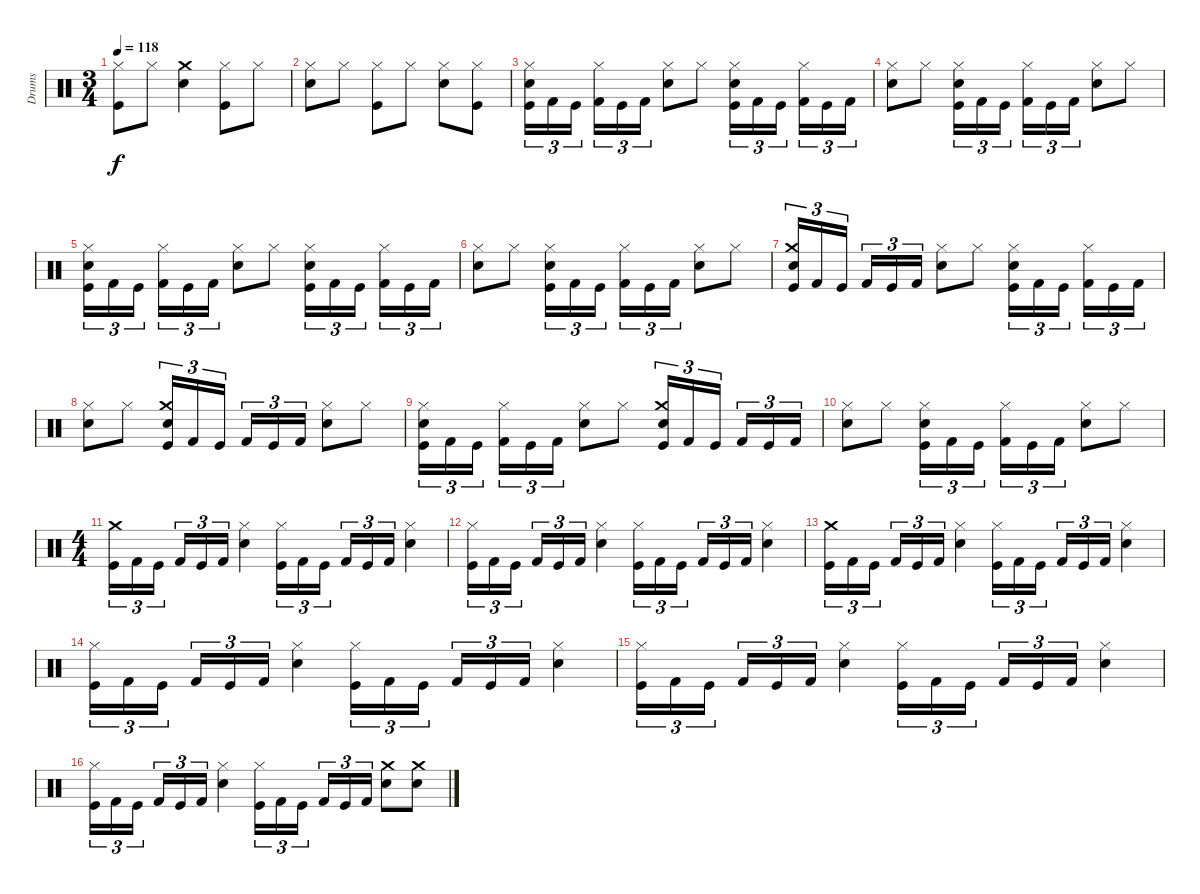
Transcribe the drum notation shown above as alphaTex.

\track ("Drums" "Drums") {instrument percussion}
\staff {score}
\articulation defaults
\ts (3 4)
\tempo 118
\clef neutral
\ks c
("Hi-Hat (closed)" "Kick (hit)").8{dy f} "Hi-Hat (closed)".8 ("Crash medium (hit)" "Snare (hit) 2").4 ("Hi-Hat (closed)" "Kick (hit)").8 "Hi-Hat (closed)".8 |
("Hi-Hat (closed)" "Snare (hit) 2").8 "Hi-Hat (closed)".8 ("Hi-Hat (closed)" "Kick (hit)").8 "Hi-Hat (closed)".8 ("Hi-Hat (closed)" "Snare (hit) 2").8 ("Kick (hit)" "Hi-Hat (closed)").8 |
("Hi-Hat (closed)" "Snare (hit) 2" "Kick (hit)").16{tu (3 2)} "Kick (hit) 2".16{tu (3 2)} "Kick (hit)".16{tu (3 2)} ("Hi-Hat (closed)" "Kick (hit) 2").16{tu (3 2)} "Kick (hit)".16{tu (3 2)} "Kick (hit) 2".16{tu (3 2)} ("Snare (hit) 2" "Hi-Hat (closed)").8 "Hi-Hat (closed)".8 ("Hi-Hat (closed)" "Snare (hit) 2" "Kick (hit)").16{tu (3 2)} "Kick (hit) 2".16{tu (3 2)} "Kick (hit)".16{tu (3 2)} ("Hi-Hat (closed)" "Kick (hit) 2").16{tu (3 2)} "Kick (hit)".16{tu (3 2)} "Kick (hit) 2".16{tu (3 2)} |
("Hi-Hat (closed)" "Snare (hit) 2").8 "Hi-Hat (closed)".8 ("Hi-Hat (closed)" "Snare (hit) 2" "Kick (hit)").16{tu (3 2)} "Kick (hit) 2".16{tu (3 2)} "Kick (hit)".16{tu (3 2)} ("Hi-Hat (closed)" "Kick (hit) 2").16{tu (3 2)} "Kick (hit)".16{tu (3 2)} "Kick (hit) 2".16{tu (3 2)} ("Snare (hit) 2" "Hi-Hat (closed)").8 "Hi-Hat (closed)".8 |
("Hi-Hat (closed)" "Snare (hit) 2" "Kick (hit)").16{tu (3 2)} "Kick (hit) 2".16{tu (3 2)} "Kick (hit)".16{tu (3 2)} ("Hi-Hat (closed)" "Kick (hit) 2").16{tu (3 2)} "Kick (hit)".16{tu (3 2)} "Kick (hit) 2".16{tu (3 2)} ("Snare (hit) 2" "Hi-Hat (closed)").8 "Hi-Hat (closed)".8 ("Hi-Hat (closed)" "Snare (hit) 2" "Kick (hit)").16{tu (3 2)} "Kick (hit) 2".16{tu (3 2)} "Kick (hit)".16{tu (3 2)} ("Hi-Hat (closed)" "Kick (hit) 2").16{tu (3 2)} "Kick (hit)".16{tu (3 2)} "Kick (hit) 2".16{tu (3 2)} |
("Hi-Hat (closed)" "Snare (hit) 2").8 "Hi-Hat (closed)".8 ("Hi-Hat (closed)" "Snare (hit) 2" "Kick (hit)").16{tu (3 2)} "Kick (hit) 2".16{tu (3 2)} "Kick (hit)".16{tu (3 2)} ("Hi-Hat (closed)" "Kick (hit) 2").16{tu (3 2)} "Kick (hit)".16{tu (3 2)} "Kick (hit) 2".16{tu (3 2)} ("Snare (hit) 2" "Hi-Hat (closed)").8 "Hi-Hat (closed)".8 |
("Crash medium (hit)" "Snare (hit) 2" "Kick (hit)").16{tu (3 2)} "Kick (hit) 2".16{tu (3 2)} "Kick (hit)".16{tu (3 2)} "Kick (hit) 2".16{tu (3 2)} "Kick (hit)".16{tu (3 2)} "Kick (hit) 2".16{tu (3 2)} ("Snare (hit) 2" "Hi-Hat (closed)").8 "Hi-Hat (closed)".8 ("Hi-Hat (closed)" "Snare (hit) 2" "Kick (hit)").16{tu (3 2)} "Kick (hit) 2".16{tu (3 2)} "Kick (hit)".16{tu (3 2)} ("Hi-Hat (closed)" "Kick (hit) 2").16{tu (3 2)} "Kick (hit)".16{tu (3 2)} "Kick (hit) 2".16{tu (3 2)} |
("Hi-Hat (closed)" "Snare (hit) 2").8 "Hi-Hat (closed)".8 ("Crash medium (hit)" "Snare (hit) 2" "Kick (hit)").16{tu (3 2)} "Kick (hit) 2".16{tu (3 2)} "Kick (hit)".16{tu (3 2)} "Kick (hit) 2".16{tu (3 2)} "Kick (hit)".16{tu (3 2)} "Kick (hit) 2".16{tu (3 2)} ("Snare (hit) 2" "Hi-Hat (closed)").8 "Hi-Hat (closed)".8 |
("Hi-Hat (closed)" "Snare (hit) 2" "Kick (hit)").16{tu (3 2)} "Kick (hit) 2".16{tu (3 2)} "Kick (hit)".16{tu (3 2)} ("Hi-Hat (closed)" "Kick (hit) 2").16{tu (3 2)} "Kick (hit)".16{tu (3 2)} "Kick (hit) 2".16{tu (3 2)} ("Snare (hit) 2" "Hi-Hat (closed)").8 "Hi-Hat (closed)".8 ("Crash medium (hit)" "Snare (hit) 2" "Kick (hit)").16{tu (3 2)} "Kick (hit) 2".16{tu (3 2)} "Kick (hit)".16{tu (3 2)} "Kick (hit) 2".16{tu (3 2)} "Kick (hit)".16{tu (3 2)} "Kick (hit) 2".16{tu (3 2)} |
("Hi-Hat (closed)" "Snare (hit) 2").8 "Hi-Hat (closed)".8 ("Hi-Hat (closed)" "Snare (hit) 2" "Kick (hit)").16{tu (3 2)} "Kick (hit) 2".16{tu (3 2)} "Kick (hit)".16{tu (3 2)} ("Hi-Hat (closed)" "Kick (hit) 2").16{tu (3 2)} "Kick (hit)".16{tu (3 2)} "Kick (hit) 2".16{tu (3 2)} ("Snare (hit) 2" "Hi-Hat (closed)").8 "Hi-Hat (closed)".8 |
\ts (4 4)
("Crash medium (hit)" "Kick (hit)").16{tu (3 2)} "Kick (hit) 2".16{tu (3 2)} "Kick (hit)".16{tu (3 2)} "Kick (hit) 2".16{tu (3 2)} "Kick (hit)".16{tu (3 2)} "Kick (hit) 2".16{tu (3 2)} ("Snare (hit) 2" "Hi-Hat (closed)").4 ("Hi-Hat (closed)" "Kick (hit)").16{tu (3 2)} "Kick (hit) 2".16{tu (3 2)} "Kick (hit)".16{tu (3 2)} "Kick (hit) 2".16{tu (3 2)} "Kick (hit)".16{tu (3 2)} "Kick (hit) 2".16{tu (3 2)} ("Snare (hit) 2" "Hi-Hat (closed)").4 |
("Hi-Hat (closed)" "Kick (hit)").16{tu (3 2)} "Kick (hit) 2".16{tu (3 2)} "Kick (hit)".16{tu (3 2)} "Kick (hit) 2".16{tu (3 2)} "Kick (hit)".16{tu (3 2)} "Kick (hit) 2".16{tu (3 2)} ("Snare (hit) 2" "Hi-Hat (closed)").4 ("Hi-Hat (closed)" "Kick (hit)").16{tu (3 2)} "Kick (hit) 2".16{tu (3 2)} "Kick (hit)".16{tu (3 2)} "Kick (hit) 2".16{tu (3 2)} "Kick (hit)".16{tu (3 2)} "Kick (hit) 2".16{tu (3 2)} ("Snare (hit) 2" "Hi-Hat (closed)").4 |
("Crash medium (hit)" "Kick (hit)").16{tu (3 2)} "Kick (hit) 2".16{tu (3 2)} "Kick (hit)".16{tu (3 2)} "Kick (hit) 2".16{tu (3 2)} "Kick (hit)".16{tu (3 2)} "Kick (hit) 2".16{tu (3 2)} ("Snare (hit) 2" "Hi-Hat (closed)").4 ("Hi-Hat (closed)" "Kick (hit)").16{tu (3 2)} "Kick (hit) 2".16{tu (3 2)} "Kick (hit)".16{tu (3 2)} "Kick (hit) 2".16{tu (3 2)} "Kick (hit)".16{tu (3 2)} "Kick (hit) 2".16{tu (3 2)} ("Snare (hit) 2" "Hi-Hat (closed)").4 |
("Hi-Hat (closed)" "Kick (hit)").16{tu (3 2)} "Kick (hit) 2".16{tu (3 2)} "Kick (hit)".16{tu (3 2)} "Kick (hit) 2".16{tu (3 2)} "Kick (hit)".16{tu (3 2)} "Kick (hit) 2".16{tu (3 2)} ("Snare (hit) 2" "Hi-Hat (closed)").4 ("Hi-Hat (closed)" "Kick (hit)").16{tu (3 2)} "Kick (hit) 2".16{tu (3 2)} "Kick (hit)".16{tu (3 2)} "Kick (hit) 2".16{tu (3 2)} "Kick (hit)".16{tu (3 2)} "Kick (hit) 2".16{tu (3 2)} ("Snare (hit) 2" "Hi-Hat (closed)").4 |
("Hi-Hat (closed)" "Kick (hit)").16{tu (3 2)} "Kick (hit) 2".16{tu (3 2)} "Kick (hit)".16{tu (3 2)} "Kick (hit) 2".16{tu (3 2)} "Kick (hit)".16{tu (3 2)} "Kick (hit) 2".16{tu (3 2)} ("Snare (hit) 2" "Hi-Hat (closed)").4 ("Hi-Hat (closed)" "Kick (hit)").16{tu (3 2)} "Kick (hit) 2".16{tu (3 2)} "Kick (hit)".16{tu (3 2)} "Kick (hit) 2".16{tu (3 2)} "Kick (hit)".16{tu (3 2)} "Kick (hit) 2".16{tu (3 2)} ("Snare (hit) 2" "Hi-Hat (closed)").4 |
("Hi-Hat (closed)" "Kick (hit)").16{tu (3 2)} "Kick (hit) 2".16{tu (3 2)} "Kick (hit)".16{tu (3 2)} "Kick (hit) 2".16{tu (3 2)} "Kick (hit)".16{tu (3 2)} "Kick (hit) 2".16{tu (3 2)} ("Snare (hit) 2" "Hi-Hat (closed)").4 ("Hi-Hat (closed)" "Kick (hit)").16{tu (3 2)} "Kick (hit) 2".16{tu (3 2)} "Kick (hit)".16{tu (3 2)} "Kick (hit) 2".16{tu (3 2)} "Kick (hit)".16{tu (3 2)} "Kick (hit) 2".16{tu (3 2)} ("Snare (hit) 2" "Crash medium (hit)").8 ("Snare (hit) 2" "Crash medium (hit)").8
